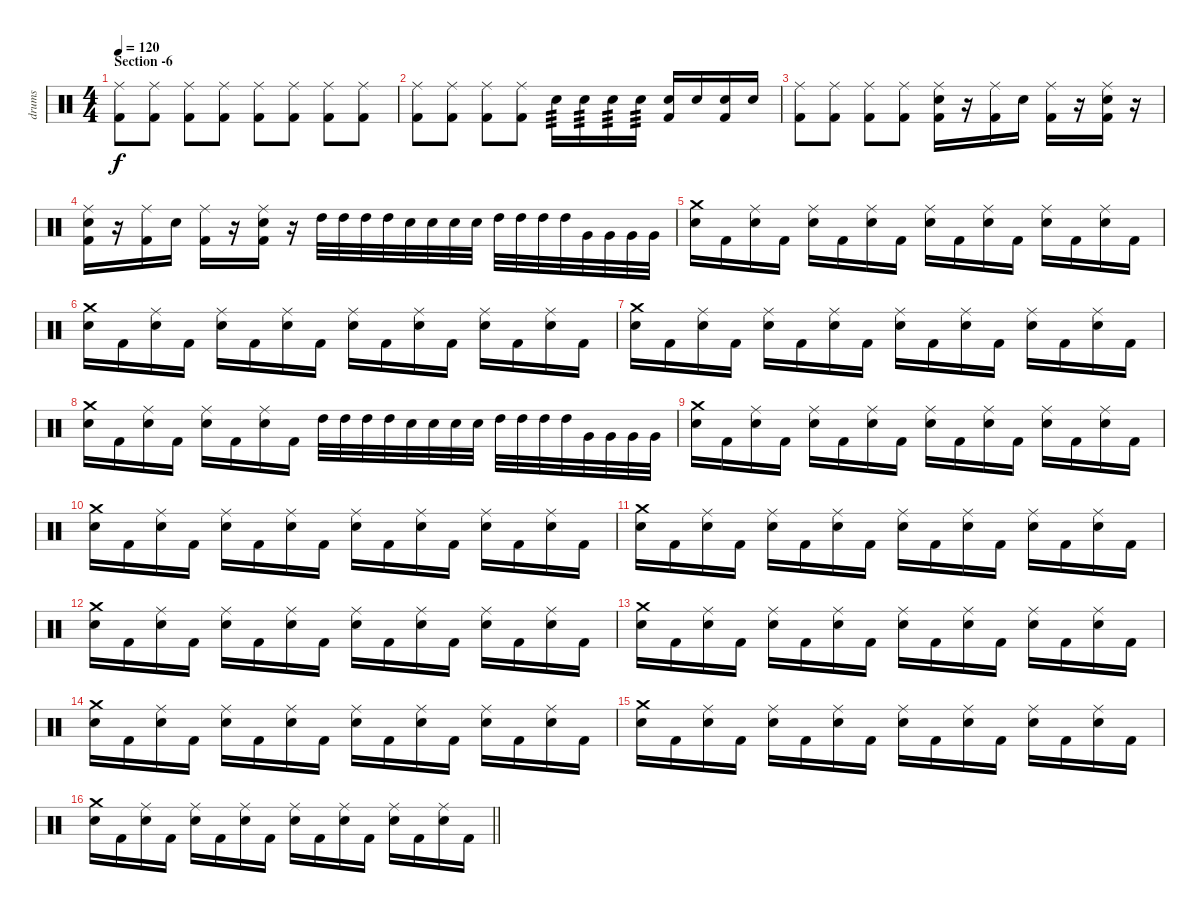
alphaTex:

\track ("drums" "drums") {instrument percussion}
\staff {score}
\articulation defaults
\ts (4 4)
\section ("" "Section -6")
\tempo 120
\clef neutral
\ks c
("Ride (middle)" "Kick (hit) 2").8{dy f} ("Ride (middle)" "Kick (hit) 2").8 ("Ride (middle)" "Kick (hit) 2").8 ("Ride (middle)" "Kick (hit) 2").8 ("Ride (middle)" "Kick (hit) 2").8 ("Ride (middle)" "Kick (hit) 2").8 ("Ride (middle)" "Kick (hit) 2").8 ("Ride (middle)" "Kick (hit) 2").8 |
("Ride (middle)" "Kick (hit) 2").8 ("Ride (middle)" "Kick (hit) 2").8 ("Ride (middle)" "Kick (hit) 2").8 ("Ride (middle)" "Kick (hit) 2").8 "Snare (hit) 2".16{tp 3 volume 16} "Snare (hit) 2".16{tp 3} "Snare (hit) 2".16{tp 3} "Snare (hit) 2".16{tp 3} ("Snare (hit) 2" "Kick (hit) 2").16 "Snare (hit) 2".16 ("Snare (hit) 2" "Kick (hit) 2").16 "Snare (hit) 2".16 |
("Ride (middle)" "Kick (hit) 2").8 ("Ride (middle)" "Kick (hit) 2").8 ("Ride (middle)" "Kick (hit) 2").8 ("Ride (middle)" "Kick (hit) 2").8 ("Ride (middle)" "Snare (hit) 2" "Kick (hit) 2").16 r.16 ("Ride (middle)" "Kick (hit) 2").16 "Snare (hit) 2".16 ("Ride (middle)" "Kick (hit) 2").16 r.16 ("Ride (middle)" "Snare (hit) 2" "Kick (hit) 2").16 r.16 |
("Ride (middle)" "Snare (hit) 2" "Kick (hit) 2").16 r.16 ("Ride (middle)" "Kick (hit) 2").16 "Snare (hit) 2".16 ("Ride (middle)" "Kick (hit) 2").16 r.16 ("Ride (middle)" "Snare (hit) 2" "Kick (hit) 2").16 r.16 "High Tom (hit)".32 "High Tom (hit)".32 "High Tom (hit)".32 "High Tom (hit)".32 "Snare (hit) 2".32 "Snare (hit) 2".32 "Snare (hit) 2".32 "Snare (hit) 2".32 "High Tom (hit)".32 "High Tom (hit)".32 "High Tom (hit)".32 "High Tom (hit)".32 "Very Low Tom (hit)".32 "Very Low Tom (hit)".32 "Very Low Tom (hit)".32 "Very Low Tom (hit)".32 |
("Crash medium (hit)" "Snare (hit) 2").16 "Kick (hit) 2".16 ("Ride (middle)" "Snare (hit) 2").16 "Kick (hit) 2".16 ("Ride (middle)" "Snare (hit) 2").16 "Kick (hit) 2".16 ("Ride (middle)" "Snare (hit) 2").16 "Kick (hit) 2".16 ("Ride (middle)" "Snare (hit) 2").16 "Kick (hit) 2".16 ("Ride (middle)" "Snare (hit) 2").16 "Kick (hit) 2".16 ("Ride (middle)" "Snare (hit) 2").16 "Kick (hit) 2".16 ("Ride (middle)" "Snare (hit) 2").16 "Kick (hit) 2".16 |
("Crash medium (hit)" "Snare (hit) 2").16 "Kick (hit) 2".16 ("Ride (middle)" "Snare (hit) 2").16 "Kick (hit) 2".16 ("Ride (middle)" "Snare (hit) 2").16 "Kick (hit) 2".16 ("Ride (middle)" "Snare (hit) 2").16 "Kick (hit) 2".16 ("Ride (middle)" "Snare (hit) 2").16 "Kick (hit) 2".16 ("Ride (middle)" "Snare (hit) 2").16 "Kick (hit) 2".16 ("Ride (middle)" "Snare (hit) 2").16 "Kick (hit) 2".16 ("Ride (middle)" "Snare (hit) 2").16 "Kick (hit) 2".16 |
("Crash medium (hit)" "Snare (hit) 2").16 "Kick (hit) 2".16 ("Ride (middle)" "Snare (hit) 2").16 "Kick (hit) 2".16 ("Ride (middle)" "Snare (hit) 2").16 "Kick (hit) 2".16 ("Ride (middle)" "Snare (hit) 2").16 "Kick (hit) 2".16 ("Ride (middle)" "Snare (hit) 2").16 "Kick (hit) 2".16 ("Ride (middle)" "Snare (hit) 2").16 "Kick (hit) 2".16 ("Ride (middle)" "Snare (hit) 2").16 "Kick (hit) 2".16 ("Ride (middle)" "Snare (hit) 2").16 "Kick (hit) 2".16 |
("Crash medium (hit)" "Snare (hit) 2").16 "Kick (hit) 2".16 ("Ride (middle)" "Snare (hit) 2").16 "Kick (hit) 2".16 ("Ride (middle)" "Snare (hit) 2").16 "Kick (hit) 2".16 ("Ride (middle)" "Snare (hit) 2").16 "Kick (hit) 2".16 "High Tom (hit)".32 "High Tom (hit)".32 "High Tom (hit)".32 "High Tom (hit)".32 "Snare (hit) 2".32 "Snare (hit) 2".32 "Snare (hit) 2".32 "Snare (hit) 2".32 "High Tom (hit)".32 "High Tom (hit)".32 "High Tom (hit)".32 "High Tom (hit)".32 "Very Low Tom (hit)".32 "Very Low Tom (hit)".32 "Very Low Tom (hit)".32 "Very Low Tom (hit)".32 |
("Crash medium (hit)" "Snare (hit) 2").16 "Kick (hit) 2".16 ("Ride (middle)" "Snare (hit) 2").16 "Kick (hit) 2".16 ("Ride (middle)" "Snare (hit) 2").16 "Kick (hit) 2".16 ("Ride (middle)" "Snare (hit) 2").16 "Kick (hit) 2".16 ("Ride (middle)" "Snare (hit) 2").16 "Kick (hit) 2".16 ("Ride (middle)" "Snare (hit) 2").16 "Kick (hit) 2".16 ("Ride (middle)" "Snare (hit) 2").16 "Kick (hit) 2".16 ("Ride (middle)" "Snare (hit) 2").16 "Kick (hit) 2".16 |
("Crash medium (hit)" "Snare (hit) 2").16 "Kick (hit) 2".16 ("Ride (middle)" "Snare (hit) 2").16 "Kick (hit) 2".16 ("Ride (middle)" "Snare (hit) 2").16 "Kick (hit) 2".16 ("Ride (middle)" "Snare (hit) 2").16 "Kick (hit) 2".16 ("Ride (middle)" "Snare (hit) 2").16 "Kick (hit) 2".16 ("Ride (middle)" "Snare (hit) 2").16 "Kick (hit) 2".16 ("Ride (middle)" "Snare (hit) 2").16 "Kick (hit) 2".16 ("Ride (middle)" "Snare (hit) 2").16 "Kick (hit) 2".16 |
("Crash medium (hit)" "Snare (hit) 2").16 "Kick (hit) 2".16 ("Ride (middle)" "Snare (hit) 2").16 "Kick (hit) 2".16 ("Ride (middle)" "Snare (hit) 2").16 "Kick (hit) 2".16 ("Ride (middle)" "Snare (hit) 2").16 "Kick (hit) 2".16 ("Ride (middle)" "Snare (hit) 2").16 "Kick (hit) 2".16 ("Ride (middle)" "Snare (hit) 2").16 "Kick (hit) 2".16 ("Ride (middle)" "Snare (hit) 2").16 "Kick (hit) 2".16 ("Ride (middle)" "Snare (hit) 2").16 "Kick (hit) 2".16 |
("Crash medium (hit)" "Snare (hit) 2").16 "Kick (hit) 2".16 ("Ride (middle)" "Snare (hit) 2").16 "Kick (hit) 2".16 ("Ride (middle)" "Snare (hit) 2").16 "Kick (hit) 2".16 ("Ride (middle)" "Snare (hit) 2").16 "Kick (hit) 2".16 ("Ride (middle)" "Snare (hit) 2").16 "Kick (hit) 2".16 ("Ride (middle)" "Snare (hit) 2").16 "Kick (hit) 2".16 ("Ride (middle)" "Snare (hit) 2").16 "Kick (hit) 2".16 ("Ride (middle)" "Snare (hit) 2").16 "Kick (hit) 2".16 |
("Crash medium (hit)" "Snare (hit) 2").16 "Kick (hit) 2".16 ("Ride (middle)" "Snare (hit) 2").16 "Kick (hit) 2".16 ("Ride (middle)" "Snare (hit) 2").16 "Kick (hit) 2".16 ("Ride (middle)" "Snare (hit) 2").16 "Kick (hit) 2".16 ("Ride (middle)" "Snare (hit) 2").16 "Kick (hit) 2".16 ("Ride (middle)" "Snare (hit) 2").16 "Kick (hit) 2".16 ("Ride (middle)" "Snare (hit) 2").16 "Kick (hit) 2".16 ("Ride (middle)" "Snare (hit) 2").16 "Kick (hit) 2".16 |
("Crash medium (hit)" "Snare (hit) 2").16 "Kick (hit) 2".16 ("Ride (middle)" "Snare (hit) 2").16 "Kick (hit) 2".16 ("Ride (middle)" "Snare (hit) 2").16 "Kick (hit) 2".16 ("Ride (middle)" "Snare (hit) 2").16 "Kick (hit) 2".16 ("Ride (middle)" "Snare (hit) 2").16 "Kick (hit) 2".16 ("Ride (middle)" "Snare (hit) 2").16 "Kick (hit) 2".16 ("Ride (middle)" "Snare (hit) 2").16 "Kick (hit) 2".16 ("Ride (middle)" "Snare (hit) 2").16 "Kick (hit) 2".16 |
("Crash medium (hit)" "Snare (hit) 2").16 "Kick (hit) 2".16 ("Ride (middle)" "Snare (hit) 2").16 "Kick (hit) 2".16 ("Ride (middle)" "Snare (hit) 2").16 "Kick (hit) 2".16 ("Ride (middle)" "Snare (hit) 2").16 "Kick (hit) 2".16 ("Ride (middle)" "Snare (hit) 2").16 "Kick (hit) 2".16 ("Ride (middle)" "Snare (hit) 2").16 "Kick (hit) 2".16 ("Ride (middle)" "Snare (hit) 2").16 "Kick (hit) 2".16 ("Ride (middle)" "Snare (hit) 2").16 "Kick (hit) 2".16 |
\barLineRight lightlight
("Crash medium (hit)" "Snare (hit) 2").16 "Kick (hit) 2".16 ("Ride (middle)" "Snare (hit) 2").16 "Kick (hit) 2".16 ("Ride (middle)" "Snare (hit) 2").16 "Kick (hit) 2".16 ("Ride (middle)" "Snare (hit) 2").16 "Kick (hit) 2".16 ("Ride (middle)" "Snare (hit) 2").16 "Kick (hit) 2".16 ("Ride (middle)" "Snare (hit) 2").16 "Kick (hit) 2".16 ("Ride (middle)" "Snare (hit) 2").16 "Kick (hit) 2".16 ("Ride (middle)" "Snare (hit) 2").16 "Kick (hit) 2".16
